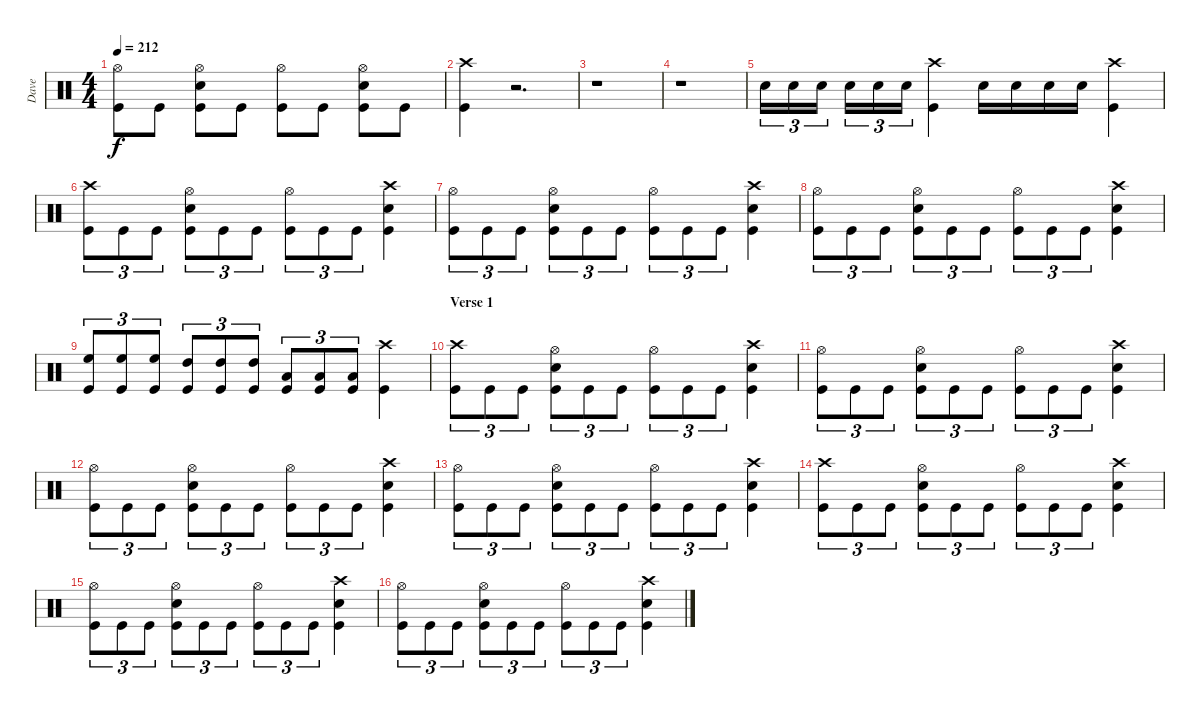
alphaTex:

\track ("Dave" "Dave") {instrument percussion}
\staff {score}
\articulation defaults
\ts (4 4)
\tempo 212
\clef neutral
\ks c
("Hi-Hat (open)" "Kick (hit)").8{dy f} "Kick (hit)".8 ("Hi-Hat (open)" "Snare (hit) 2" "Kick (hit)").8 "Kick (hit)".8 ("Hi-Hat (open)" "Kick (hit)").8 "Kick (hit)".8 ("Hi-Hat (open)" "Snare (hit) 2" "Kick (hit)").8 "Kick (hit)".8 |
("Crash high (hit)" "Kick (hit)").4 r.2{d} |
r.1 |
r.1 |
"Snare (hit) 2".16{tu (3 2)} "Snare (hit) 2".16{tu (3 2)} "Snare (hit) 2".16{tu (3 2)} "Snare (hit) 2".16{tu (3 2)} "Snare (hit) 2".16{tu (3 2)} "Snare (hit) 2".16{tu (3 2)} ("Crash high (hit)" "Kick (hit)").4 "Snare (hit) 2".16 "Snare (hit) 2".16 "Snare (hit) 2".16 "Snare (hit) 2".16 ("Crash high (hit)" "Kick (hit)").4 |
("Crash high (hit)" "Kick (hit)").8{tu (3 2)} "Kick (hit)".8{tu (3 2)} "Kick (hit)".8{tu (3 2)} ("Hi-Hat (open)" "Snare (hit) 2" "Kick (hit)").8{tu (3 2)} "Kick (hit)".8{tu (3 2)} "Kick (hit)".8{tu (3 2)} ("Hi-Hat (open)" "Kick (hit)").8{tu (3 2)} "Kick (hit)".8{tu (3 2)} "Kick (hit)".8{tu (3 2)} ("Crash high (hit)" "Snare (hit) 2" "Kick (hit)").4 |
("Hi-Hat (open)" "Kick (hit)").8{tu (3 2)} "Kick (hit)".8{tu (3 2)} "Kick (hit)".8{tu (3 2)} ("Hi-Hat (open)" "Snare (hit) 2" "Kick (hit)").8{tu (3 2)} "Kick (hit)".8{tu (3 2)} "Kick (hit)".8{tu (3 2)} ("Hi-Hat (open)" "Kick (hit)").8{tu (3 2)} "Kick (hit)".8{tu (3 2)} "Kick (hit)".8{tu (3 2)} ("Crash high (hit)" "Snare (hit) 2" "Kick (hit)").4 |
("Hi-Hat (open)" "Kick (hit)").8{tu (3 2)} "Kick (hit)".8{tu (3 2)} "Kick (hit)".8{tu (3 2)} ("Hi-Hat (open)" "Snare (hit) 2" "Kick (hit)").8{tu (3 2)} "Kick (hit)".8{tu (3 2)} "Kick (hit)".8{tu (3 2)} ("Hi-Hat (open)" "Kick (hit)").8{tu (3 2)} "Kick (hit)".8{tu (3 2)} "Kick (hit)".8{tu (3 2)} ("Crash high (hit)" "Snare (hit) 2" "Kick (hit)").4 |
("High Floor Tom (hit)" "Kick (hit)").8{tu (3 2)} ("High Floor Tom (hit)" "Kick (hit)").8{tu (3 2)} ("High Floor Tom (hit)" "Kick (hit)").8{tu (3 2)} ("High Tom (hit)" "Kick (hit)").8{tu (3 2)} ("High Tom (hit)" "Kick (hit)").8{tu (3 2)} ("High Tom (hit)" "Kick (hit)").8{tu (3 2)} ("Low Tom (hit)" "Kick (hit)").8{tu (3 2)} ("Low Tom (hit)" "Kick (hit)").8{tu (3 2)} ("Low Tom (hit)" "Kick (hit)").8{tu (3 2)} ("Crash high (hit)" "Kick (hit)").4 |
\section ("" "Verse 1")
("Crash high (hit)" "Kick (hit)").8{tu (3 2)} "Kick (hit)".8{tu (3 2)} "Kick (hit)".8{tu (3 2)} ("Hi-Hat (open)" "Snare (hit) 2" "Kick (hit)").8{tu (3 2)} "Kick (hit)".8{tu (3 2)} "Kick (hit)".8{tu (3 2)} ("Hi-Hat (open)" "Kick (hit)").8{tu (3 2)} "Kick (hit)".8{tu (3 2)} "Kick (hit)".8{tu (3 2)} ("Crash high (hit)" "Snare (hit) 2" "Kick (hit)").4 |
("Hi-Hat (open)" "Kick (hit)").8{tu (3 2)} "Kick (hit)".8{tu (3 2)} "Kick (hit)".8{tu (3 2)} ("Hi-Hat (open)" "Snare (hit) 2" "Kick (hit)").8{tu (3 2)} "Kick (hit)".8{tu (3 2)} "Kick (hit)".8{tu (3 2)} ("Hi-Hat (open)" "Kick (hit)").8{tu (3 2)} "Kick (hit)".8{tu (3 2)} "Kick (hit)".8{tu (3 2)} ("Crash high (hit)" "Snare (hit) 2" "Kick (hit)").4 |
("Hi-Hat (open)" "Kick (hit)").8{tu (3 2)} "Kick (hit)".8{tu (3 2)} "Kick (hit)".8{tu (3 2)} ("Hi-Hat (open)" "Snare (hit) 2" "Kick (hit)").8{tu (3 2)} "Kick (hit)".8{tu (3 2)} "Kick (hit)".8{tu (3 2)} ("Hi-Hat (open)" "Kick (hit)").8{tu (3 2)} "Kick (hit)".8{tu (3 2)} "Kick (hit)".8{tu (3 2)} ("Crash high (hit)" "Snare (hit) 2" "Kick (hit)").4 |
("Hi-Hat (open)" "Kick (hit)").8{tu (3 2)} "Kick (hit)".8{tu (3 2)} "Kick (hit)".8{tu (3 2)} ("Hi-Hat (open)" "Snare (hit) 2" "Kick (hit)").8{tu (3 2)} "Kick (hit)".8{tu (3 2)} "Kick (hit)".8{tu (3 2)} ("Hi-Hat (open)" "Kick (hit)").8{tu (3 2)} "Kick (hit)".8{tu (3 2)} "Kick (hit)".8{tu (3 2)} ("Crash high (hit)" "Snare (hit) 2" "Kick (hit)").4 |
("Crash high (hit)" "Kick (hit)").8{tu (3 2)} "Kick (hit)".8{tu (3 2)} "Kick (hit)".8{tu (3 2)} ("Hi-Hat (open)" "Snare (hit) 2" "Kick (hit)").8{tu (3 2)} "Kick (hit)".8{tu (3 2)} "Kick (hit)".8{tu (3 2)} ("Hi-Hat (open)" "Kick (hit)").8{tu (3 2)} "Kick (hit)".8{tu (3 2)} "Kick (hit)".8{tu (3 2)} ("Crash high (hit)" "Snare (hit) 2" "Kick (hit)").4 |
("Hi-Hat (open)" "Kick (hit)").8{tu (3 2)} "Kick (hit)".8{tu (3 2)} "Kick (hit)".8{tu (3 2)} ("Hi-Hat (open)" "Snare (hit) 2" "Kick (hit)").8{tu (3 2)} "Kick (hit)".8{tu (3 2)} "Kick (hit)".8{tu (3 2)} ("Hi-Hat (open)" "Kick (hit)").8{tu (3 2)} "Kick (hit)".8{tu (3 2)} "Kick (hit)".8{tu (3 2)} ("Crash high (hit)" "Snare (hit) 2" "Kick (hit)").4 |
("Hi-Hat (open)" "Kick (hit)").8{tu (3 2)} "Kick (hit)".8{tu (3 2)} "Kick (hit)".8{tu (3 2)} ("Hi-Hat (open)" "Snare (hit) 2" "Kick (hit)").8{tu (3 2)} "Kick (hit)".8{tu (3 2)} "Kick (hit)".8{tu (3 2)} ("Hi-Hat (open)" "Kick (hit)").8{tu (3 2)} "Kick (hit)".8{tu (3 2)} "Kick (hit)".8{tu (3 2)} ("Crash high (hit)" "Snare (hit) 2" "Kick (hit)").4
